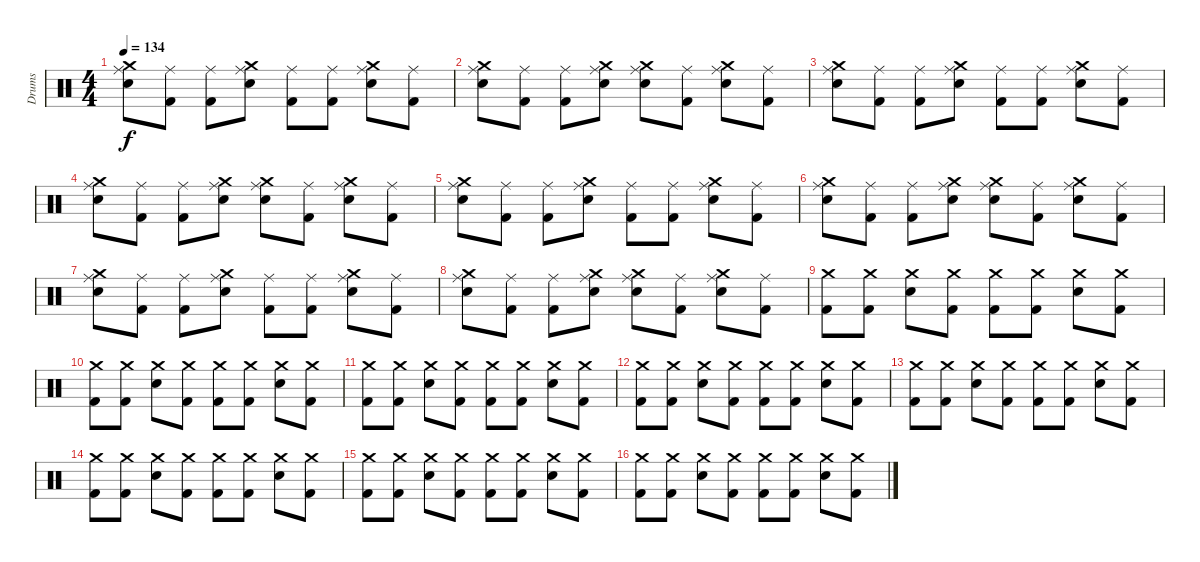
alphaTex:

\track ("Drums" "Drums") {instrument percussion}
\staff {score}
\articulation defaults
\ts (4 4)
\tempo 134
\clef neutral
\ks c
("Ride (middle)" "Crash medium (hit)" "Snare (hit) 2").8{dy f} ("Ride (middle)" "Kick (hit) 2").8 ("Ride (middle)" "Kick (hit) 2").8 ("Ride (middle)" "Crash medium (hit)" "Snare (hit) 2").8 ("Ride (middle)" "Kick (hit) 2").8 ("Ride (middle)" "Kick (hit) 2").8 ("Ride (middle)" "Crash medium (hit)" "Snare (hit) 2").8 ("Ride (middle)" "Kick (hit) 2").8 |
("Ride (middle)" "Crash medium (hit)" "Snare (hit) 2").8 ("Ride (middle)" "Kick (hit) 2").8 ("Ride (middle)" "Kick (hit) 2").8 ("Ride (middle)" "Crash medium (hit)" "Snare (hit) 2").8 ("Ride (middle)" "Crash medium (hit)" "Snare (hit) 2").8 ("Ride (middle)" "Kick (hit) 2").8 ("Ride (middle)" "Crash medium (hit)" "Snare (hit) 2").8 ("Ride (middle)" "Kick (hit) 2").8 |
("Ride (middle)" "Crash medium (hit)" "Snare (hit) 2").8 ("Ride (middle)" "Kick (hit) 2").8 ("Ride (middle)" "Kick (hit) 2").8 ("Ride (middle)" "Crash medium (hit)" "Snare (hit) 2").8 ("Ride (middle)" "Kick (hit) 2").8 ("Ride (middle)" "Kick (hit) 2").8 ("Ride (middle)" "Crash medium (hit)" "Snare (hit) 2").8 ("Ride (middle)" "Kick (hit) 2").8 |
("Ride (middle)" "Crash medium (hit)" "Snare (hit) 2").8 ("Ride (middle)" "Kick (hit) 2").8 ("Ride (middle)" "Kick (hit) 2").8 ("Ride (middle)" "Crash medium (hit)" "Snare (hit) 2").8 ("Ride (middle)" "Crash medium (hit)" "Snare (hit) 2").8 ("Ride (middle)" "Kick (hit) 2").8 ("Ride (middle)" "Crash medium (hit)" "Snare (hit) 2").8 ("Ride (middle)" "Kick (hit) 2").8 |
("Ride (middle)" "Crash medium (hit)" "Snare (hit) 2").8 ("Ride (middle)" "Kick (hit) 2").8 ("Ride (middle)" "Kick (hit) 2").8 ("Ride (middle)" "Crash medium (hit)" "Snare (hit) 2").8 ("Ride (middle)" "Kick (hit) 2").8 ("Ride (middle)" "Kick (hit) 2").8 ("Ride (middle)" "Crash medium (hit)" "Snare (hit) 2").8 ("Ride (middle)" "Kick (hit) 2").8 |
("Ride (middle)" "Crash medium (hit)" "Snare (hit) 2").8 ("Ride (middle)" "Kick (hit) 2").8 ("Ride (middle)" "Kick (hit) 2").8 ("Ride (middle)" "Crash medium (hit)" "Snare (hit) 2").8 ("Ride (middle)" "Crash medium (hit)" "Snare (hit) 2").8 ("Ride (middle)" "Kick (hit) 2").8 ("Ride (middle)" "Crash medium (hit)" "Snare (hit) 2").8 ("Ride (middle)" "Kick (hit) 2").8 |
("Ride (middle)" "Crash medium (hit)" "Snare (hit) 2").8 ("Ride (middle)" "Kick (hit) 2").8 ("Ride (middle)" "Kick (hit) 2").8 ("Ride (middle)" "Crash medium (hit)" "Snare (hit) 2").8 ("Ride (middle)" "Kick (hit) 2").8 ("Ride (middle)" "Kick (hit) 2").8 ("Ride (middle)" "Crash medium (hit)" "Snare (hit) 2").8 ("Ride (middle)" "Kick (hit) 2").8 |
("Ride (middle)" "Crash medium (hit)" "Snare (hit) 2").8 ("Ride (middle)" "Kick (hit) 2").8 ("Ride (middle)" "Kick (hit) 2").8 ("Ride (middle)" "Crash medium (hit)" "Snare (hit) 2").8 ("Ride (middle)" "Crash medium (hit)" "Snare (hit) 2").8 ("Ride (middle)" "Kick (hit) 2").8 ("Ride (middle)" "Crash medium (hit)" "Snare (hit) 2").8 ("Ride (middle)" "Kick (hit) 2").8 |
("Crash medium (hit)" "Kick (hit) 2").8 ("Crash medium (hit)" "Kick (hit) 2").8 ("Crash medium (hit)" "Snare (hit) 2").8 ("Crash medium (hit)" "Kick (hit) 2").8 ("Crash medium (hit)" "Kick (hit) 2").8 ("Crash medium (hit)" "Kick (hit) 2").8 ("Crash medium (hit)" "Snare (hit) 2").8 ("Crash medium (hit)" "Kick (hit) 2").8 |
("Crash medium (hit)" "Kick (hit) 2").8 ("Crash medium (hit)" "Kick (hit) 2").8 ("Crash medium (hit)" "Snare (hit) 2").8 ("Crash medium (hit)" "Kick (hit) 2").8 ("Crash medium (hit)" "Kick (hit) 2").8 ("Crash medium (hit)" "Kick (hit) 2").8 ("Crash medium (hit)" "Snare (hit) 2").8 ("Crash medium (hit)" "Kick (hit) 2").8 |
("Crash medium (hit)" "Kick (hit) 2").8 ("Crash medium (hit)" "Kick (hit) 2").8 ("Crash medium (hit)" "Snare (hit) 2").8 ("Crash medium (hit)" "Kick (hit) 2").8 ("Crash medium (hit)" "Kick (hit) 2").8 ("Crash medium (hit)" "Kick (hit) 2").8 ("Crash medium (hit)" "Snare (hit) 2").8 ("Crash medium (hit)" "Kick (hit) 2").8 |
("Crash medium (hit)" "Kick (hit) 2").8 ("Crash medium (hit)" "Kick (hit) 2").8 ("Crash medium (hit)" "Snare (hit) 2").8 ("Crash medium (hit)" "Kick (hit) 2").8 ("Crash medium (hit)" "Kick (hit) 2").8 ("Crash medium (hit)" "Kick (hit) 2").8 ("Crash medium (hit)" "Snare (hit) 2").8 ("Crash medium (hit)" "Kick (hit) 2").8 |
("Crash medium (hit)" "Kick (hit) 2").8 ("Crash medium (hit)" "Kick (hit) 2").8 ("Crash medium (hit)" "Snare (hit) 2").8 ("Crash medium (hit)" "Kick (hit) 2").8 ("Crash medium (hit)" "Kick (hit) 2").8 ("Crash medium (hit)" "Kick (hit) 2").8 ("Crash medium (hit)" "Snare (hit) 2").8 ("Crash medium (hit)" "Kick (hit) 2").8 |
("Crash medium (hit)" "Kick (hit) 2").8 ("Crash medium (hit)" "Kick (hit) 2").8 ("Crash medium (hit)" "Snare (hit) 2").8 ("Crash medium (hit)" "Kick (hit) 2").8 ("Crash medium (hit)" "Kick (hit) 2").8 ("Crash medium (hit)" "Kick (hit) 2").8 ("Crash medium (hit)" "Snare (hit) 2").8 ("Crash medium (hit)" "Kick (hit) 2").8 |
("Crash medium (hit)" "Kick (hit) 2").8 ("Crash medium (hit)" "Kick (hit) 2").8 ("Crash medium (hit)" "Snare (hit) 2").8 ("Crash medium (hit)" "Kick (hit) 2").8 ("Crash medium (hit)" "Kick (hit) 2").8 ("Crash medium (hit)" "Kick (hit) 2").8 ("Crash medium (hit)" "Snare (hit) 2").8 ("Crash medium (hit)" "Kick (hit) 2").8 |
("Crash medium (hit)" "Kick (hit) 2").8 ("Crash medium (hit)" "Kick (hit) 2").8 ("Crash medium (hit)" "Snare (hit) 2").8 ("Crash medium (hit)" "Kick (hit) 2").8 ("Crash medium (hit)" "Kick (hit) 2").8 ("Crash medium (hit)" "Kick (hit) 2").8 ("Crash medium (hit)" "Snare (hit) 2").8 ("Crash medium (hit)" "Kick (hit) 2").8
